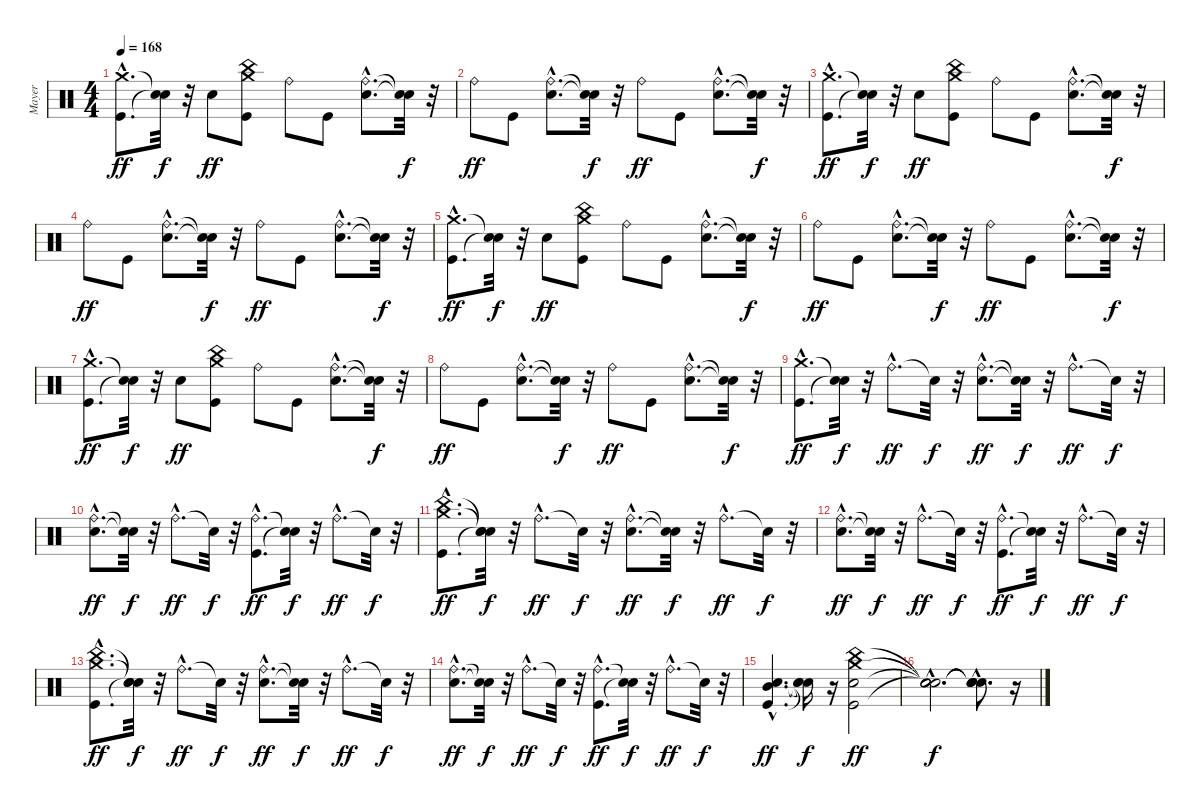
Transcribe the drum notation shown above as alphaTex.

\track ("Mayer" "Mayer") {instrument percussion}
\staff {score}
\articulation defaults
\ts (4 4)
\tempo 168
\clef neutral
\ks c
("Kick (hit)"{hac} "Crash medium (hit)"{hac}).8{d dy ff} ("Snare (hit)"{t} "Snare (hit)"{t}).32{dy f} r.32 "Electric Snare (hit)".8{dy ff} ("Kick (hit)" "China (hit)" "Crash medium (hit)").8 "Ride (bell)".8 "Kick (hit)".8 ("Electric Snare (hit)"{hac} "Ride (bell)"{hac}).8{d} ("Snare (hit)"{t} "Snare (hit)"{t}).32{dy f} r.32 |
"Ride (bell)".8{dy ff} "Kick (hit)".8 ("Electric Snare (hit)"{hac} "Ride (bell)"{hac}).8{d} ("Snare (hit)"{t} "Snare (hit)"{t}).32{dy f} r.32 "Ride (bell)".8{dy ff} "Kick (hit)".8 ("Electric Snare (hit)"{hac} "Ride (bell)"{hac}).8{d} ("Snare (hit)"{t} "Snare (hit)"{t}).32{dy f} r.32 |
("Kick (hit)"{hac} "Crash medium (hit)"{hac}).8{d dy ff} ("Snare (hit)"{t} "Snare (hit)"{t}).32{dy f} r.32 "Electric Snare (hit)".8{dy ff} ("Kick (hit)" "China (hit)" "Crash medium (hit)").8 "Ride (bell)".8 "Kick (hit)".8 ("Electric Snare (hit)"{hac} "Ride (bell)"{hac}).8{d} ("Snare (hit)"{t} "Snare (hit)"{t}).32{dy f} r.32 |
"Ride (bell)".8{dy ff} "Kick (hit)".8 ("Electric Snare (hit)"{hac} "Ride (bell)"{hac}).8{d} ("Snare (hit)"{t} "Snare (hit)"{t}).32{dy f} r.32 "Ride (bell)".8{dy ff} "Kick (hit)".8 ("Electric Snare (hit)"{hac} "Ride (bell)"{hac}).8{d} ("Snare (hit)"{t} "Snare (hit)"{t}).32{dy f} r.32 |
("Kick (hit)"{hac} "Crash medium (hit)"{hac}).8{d dy ff} ("Snare (hit)"{t} "Snare (hit)"{t}).32{dy f} r.32 "Electric Snare (hit)".8{dy ff} ("Kick (hit)" "China (hit)" "Crash medium (hit)").8 "Ride (bell)".8 "Kick (hit)".8 ("Electric Snare (hit)"{hac} "Ride (bell)"{hac}).8{d} ("Snare (hit)"{t} "Snare (hit)"{t}).32{dy f} r.32 |
"Ride (bell)".8{dy ff} "Kick (hit)".8 ("Electric Snare (hit)"{hac} "Ride (bell)"{hac}).8{d} ("Snare (hit)"{t} "Snare (hit)"{t}).32{dy f} r.32 "Ride (bell)".8{dy ff} "Kick (hit)".8 ("Electric Snare (hit)"{hac} "Ride (bell)"{hac}).8{d} ("Snare (hit)"{t} "Snare (hit)"{t}).32{dy f} r.32 |
("Kick (hit)"{hac} "Crash medium (hit)"{hac}).8{d dy ff} ("Snare (hit)"{t} "Snare (hit)"{t}).32{dy f} r.32 "Electric Snare (hit)".8{dy ff} ("Kick (hit)" "China (hit)" "Crash medium (hit)").8 "Ride (bell)".8 "Kick (hit)".8 ("Electric Snare (hit)"{hac} "Ride (bell)"{hac}).8{d} ("Snare (hit)"{t} "Snare (hit)"{t}).32{dy f} r.32 |
"Ride (bell)".8{dy ff} "Kick (hit)".8 ("Electric Snare (hit)"{hac} "Ride (bell)"{hac}).8{d} ("Snare (hit)"{t} "Snare (hit)"{t}).32{dy f} r.32 "Ride (bell)".8{dy ff} "Kick (hit)".8 ("Electric Snare (hit)"{hac} "Ride (bell)"{hac}).8{d} ("Snare (hit)"{t} "Snare (hit)"{t}).32{dy f} r.32 |
("Kick (hit)"{hac} "Crash medium (hit)"{hac}).8{d dy ff} ("Snare (hit)"{t} "Snare (hit)"{t}).32{dy f} r.32 "Ride (bell)"{hac}.8{d dy ff} "Snare (hit)"{t}.32{dy f} r.32 ("Electric Snare (hit)"{hac} "Ride (bell)"{hac}).8{d dy ff} ("Snare (hit)"{t} "Snare (hit)"{t}).32{dy f} r.32 "Ride (bell)"{hac}.8{d dy ff} "Snare (hit)"{t}.32{dy f} r.32 |
("Electric Snare (hit)"{hac} "Ride (bell)"{hac}).8{d dy ff} ("Snare (hit)"{t} "Snare (hit)"{t}).32{dy f} r.32 "Ride (bell)"{hac}.8{d dy ff} "Snare (hit)"{t}.32{dy f} r.32 ("Kick (hit)"{hac} "Ride (bell)"{hac}).8{d dy ff} ("Snare (hit)"{t} "Snare (hit)"{t}).32{dy f} r.32 "Ride (bell)"{hac}.8{d dy ff} "Snare (hit)"{t}.32{dy f} r.32 |
("Kick (hit)"{hac} "China (hit)"{hac} "Crash medium (hit)"{hac}).8{d dy ff} ("Snare (hit)"{t} "Snare (hit)"{t} "Snare (hit)"{t}).32{dy f} r.32 "Ride (bell)"{hac}.8{d dy ff} "Snare (hit)"{t}.32{dy f} r.32 ("Electric Snare (hit)"{hac} "Ride (bell)"{hac}).8{d dy ff} ("Snare (hit)"{t} "Snare (hit)"{t}).32{dy f} r.32 "Ride (bell)"{hac}.8{d dy ff} "Snare (hit)"{t}.32{dy f} r.32 |
("Electric Snare (hit)"{hac} "Ride (bell)"{hac}).8{d dy ff} ("Snare (hit)"{t} "Snare (hit)"{t}).32{dy f} r.32 "Ride (bell)"{hac}.8{d dy ff} "Snare (hit)"{t}.32{dy f} r.32 ("Kick (hit)"{hac} "Ride (bell)"{hac}).8{d dy ff} ("Snare (hit)"{t} "Snare (hit)"{t}).32{dy f} r.32 "Ride (bell)"{hac}.8{d dy ff} "Snare (hit)"{t}.32{dy f} r.32 |
("Kick (hit)"{hac} "China (hit)"{hac} "Crash medium (hit)"{hac}).8{d dy ff} ("Snare (hit)"{t} "Snare (hit)"{t} "Snare (hit)"{t}).32{dy f} r.32 "Ride (bell)"{hac}.8{d dy ff} "Snare (hit)"{t}.32{dy f} r.32 ("Electric Snare (hit)"{hac} "Ride (bell)"{hac}).8{d dy ff} ("Snare (hit)"{t} "Snare (hit)"{t}).32{dy f} r.32 "Ride (bell)"{hac}.8{d dy ff} "Snare (hit)"{t}.32{dy f} r.32 |
("Electric Snare (hit)"{hac} "Ride (bell)"{hac}).8{d dy ff} ("Snare (hit)"{t} "Snare (hit)"{t}).32{dy f} r.32 "Ride (bell)"{hac}.8{d dy ff} "Snare (hit)"{t}.32{dy f} r.32 ("Kick (hit)"{hac} "Ride (bell)"{hac}).8{d dy ff} ("Snare (hit)"{t} "Snare (hit)"{t}).32{dy f} r.32 "Ride (bell)"{hac}.8{d dy ff} "Snare (hit)"{t}.32{dy f} r.32 |
("Kick (hit)"{hac} "Electric Snare (hit)"{hac} "Mid Tom (hit)"{hac}).4{d dy ff} ("Snare (hit)"{t} "Snare (hit)"{t} "Snare (hit)"{t}).16{dy f} r.16 ("Kick (hit)" "Electric Snare (hit)" "China (hit)" "Crash medium (hit)").2{dy ff} |
("Snare (hit)"{hac t} "Snare (hit)"{hac t} "Snare (hit)"{hac t} "Snare (hit)"{hac t}).2{d dy f} ("Snare (hit)"{hac t} "Snare (hit)"{hac t} "Snare (hit)"{hac t} "Snare (hit)"{hac t}).8{d} r.16
